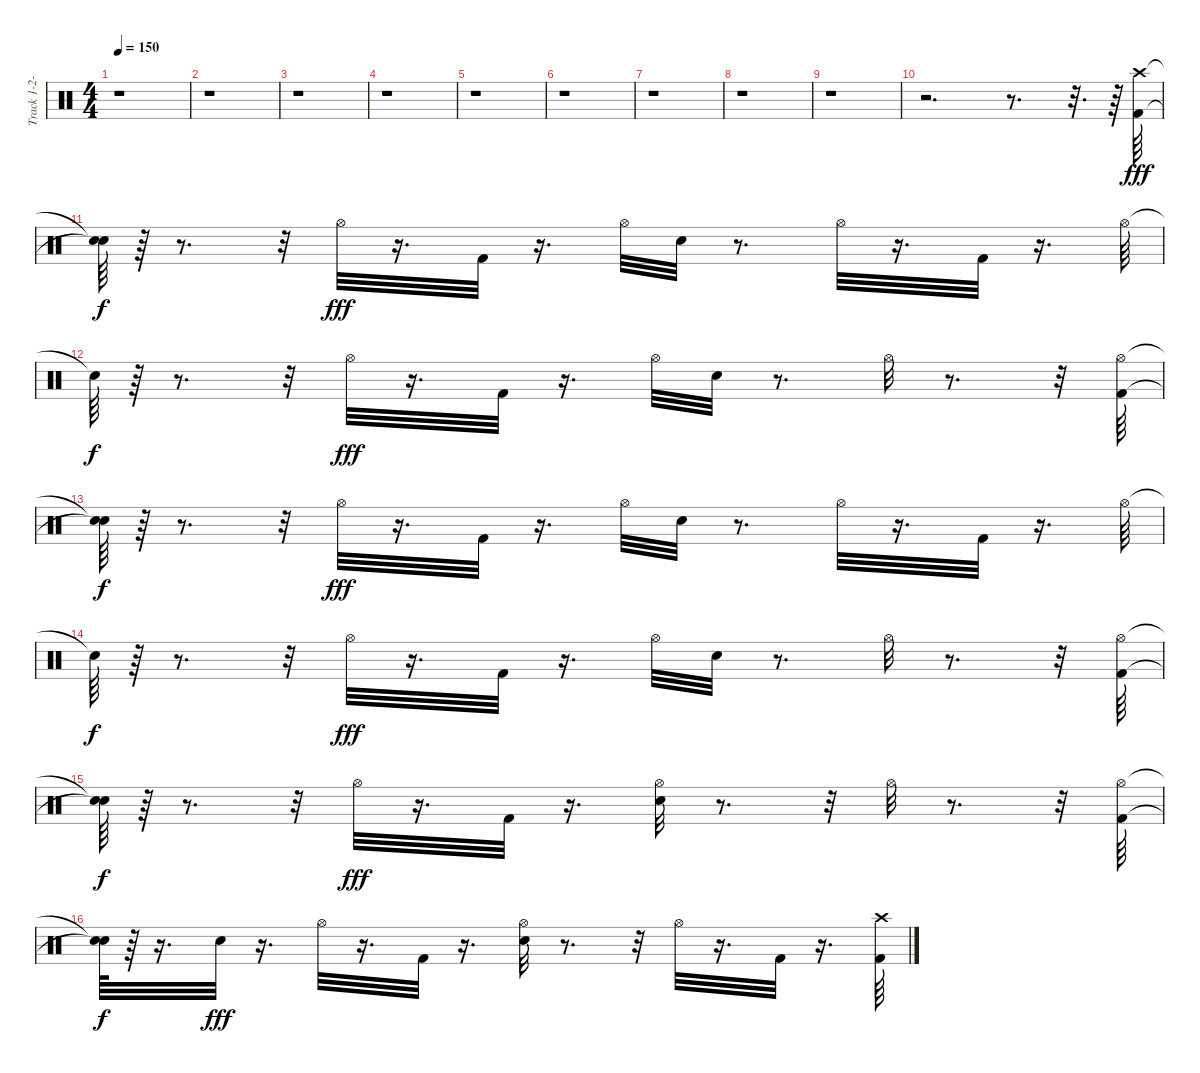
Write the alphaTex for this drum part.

\track ("Track 1-2-3-4-5-6-7-8-9-10-11-12-13-14-1" "Track 1-2-") {instrument percussion}
\staff {score}
\articulation defaults
\ts (4 4)
\tempo 150
\clef neutral
\ks c
r.1{dy fff} |
r.1 |
r.1 |
r.1 |
r.1 |
r.1 |
r.1 |
r.1 |
r.1 |
r.2{d} r.8{d} r.32{d} r.64 ("Crash high (hit)" "Kick (hit) 2").64 |
("Snare (hit)"{t} "Snare (hit)"{t}).64{dy f} r.64 r.8{d} r.32 "Hi-Hat (open)".32{dy fff} r.16{d} "Kick (hit) 2".32 r.16{d} "Hi-Hat (open)".32 "Snare (hit) 2".32 r.8{d} "Hi-Hat (open)".32 r.16{d} "Kick (hit) 2".32 r.16{d} "Hi-Hat (open)".64 |
"Snare (hit)"{t}.64{dy f} r.64 r.8{d} r.32 "Hi-Hat (open)".32{dy fff} r.16{d} "Kick (hit) 2".32 r.16{d} "Hi-Hat (open)".32 "Snare (hit) 2".32 r.8{d} "Hi-Hat (open)".32 r.8{d} r.32 ("Hi-Hat (open)" "Kick (hit) 2").64 |
("Snare (hit)"{t} "Snare (hit)"{t}).64{dy f} r.64 r.8{d} r.32 "Hi-Hat (open)".32{dy fff} r.16{d} "Kick (hit) 2".32 r.16{d} "Hi-Hat (open)".32 "Snare (hit) 2".32 r.8{d} "Hi-Hat (open)".32 r.16{d} "Kick (hit) 2".32 r.16{d} "Hi-Hat (open)".64 |
"Snare (hit)"{t}.64{dy f} r.64 r.8{d} r.32 "Hi-Hat (open)".32{dy fff} r.16{d} "Kick (hit) 2".32 r.16{d} "Hi-Hat (open)".32 "Snare (hit) 2".32 r.8{d} "Hi-Hat (open)".32 r.8{d} r.32 ("Hi-Hat (open)" "Kick (hit) 2").64 |
("Snare (hit)"{t} "Snare (hit)"{t}).64{dy f} r.64 r.8{d} r.32 "Hi-Hat (open)".32{dy fff} r.16{d} "Kick (hit) 2".32 r.16{d} ("Hi-Hat (open)" "Snare (hit) 2").32 r.8{d} r.32 "Hi-Hat (open)".32 r.8{d} r.32 ("Hi-Hat (open)" "Kick (hit) 2").64 |
("Snare (hit)"{t} "Snare (hit)"{t}).64{dy f} r.64 r.16{d} "Snare (hit) 2".32{dy fff} r.16{d} "Hi-Hat (open)".32 r.16{d} "Kick (hit) 2".32 r.16{d} ("Snare (hit) 2" "Hi-Hat (open)").32 r.8{d} r.32 "Hi-Hat (open)".32 r.16{d} "Kick (hit) 2".32 r.16{d} ("Crash high (hit)" "Kick (hit) 2").64
